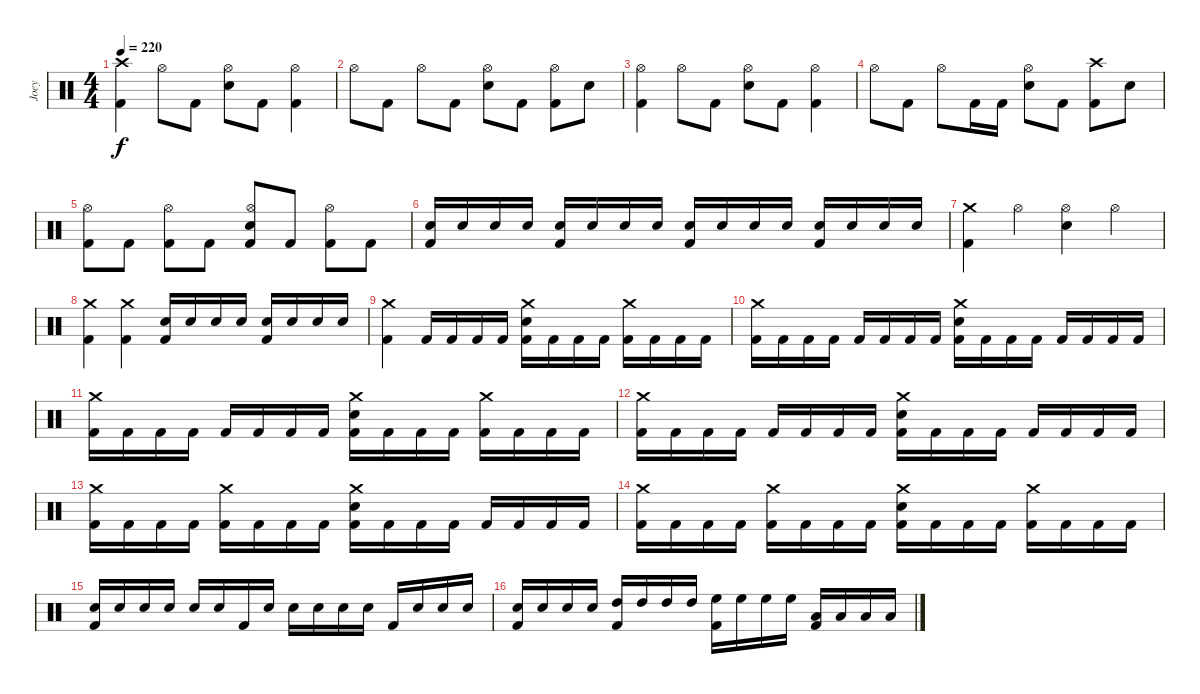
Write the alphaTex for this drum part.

\track ("Joey" "Joey") {instrument percussion}
\staff {score}
\articulation defaults
\ts (4 4)
\tempo 220
\clef neutral
\ks c
("Crash high (hit)" "Kick (hit) 2").4{dy f} "Hi-Hat (open)".8 "Kick (hit) 2".8 ("Hi-Hat (open)" "Electric Snare (hit)").8 "Kick (hit) 2".8 ("Hi-Hat (open)" "Kick (hit) 2").4 |
"Hi-Hat (open)".8 "Kick (hit) 2".8 "Hi-Hat (open)".8 "Kick (hit) 2".8 ("Hi-Hat (open)" "Electric Snare (hit)").8 "Kick (hit) 2".8 ("Hi-Hat (open)" "Kick (hit) 2").8 "Electric Snare (hit)".8 |
("Hi-Hat (open)" "Kick (hit) 2").4 "Hi-Hat (open)".8 "Kick (hit) 2".8 ("Hi-Hat (open)" "Electric Snare (hit)").8 "Kick (hit) 2".8 ("Hi-Hat (open)" "Kick (hit) 2").4 |
"Hi-Hat (open)".8 "Kick (hit) 2".8 "Hi-Hat (open)".8 "Kick (hit) 2".16 "Kick (hit) 2".16 ("Hi-Hat (open)" "Electric Snare (hit)").8 "Kick (hit) 2".8 ("Crash high (hit)" "Kick (hit) 2").8 "Electric Snare (hit)".8 |
("Hi-Hat (open)" "Kick (hit) 2").8 "Kick (hit) 2".8 ("Hi-Hat (open)" "Kick (hit) 2").8 "Kick (hit) 2".8 ("Hi-Hat (open)" "Electric Snare (hit)" "Kick (hit) 2").8 "Kick (hit) 2".8 ("Hi-Hat (open)" "Kick (hit) 2").8 "Kick (hit) 2".8 |
("Electric Snare (hit)" "Kick (hit) 2").16 "Electric Snare (hit)".16 "Electric Snare (hit)".16 "Electric Snare (hit)".16 ("Electric Snare (hit)" "Kick (hit) 2").16 "Electric Snare (hit)".16 "Electric Snare (hit)".16 "Electric Snare (hit)".16 ("Electric Snare (hit)" "Kick (hit) 2").16 "Electric Snare (hit)".16 "Electric Snare (hit)".16 "Electric Snare (hit)".16 ("Electric Snare (hit)" "Kick (hit) 2").16 "Electric Snare (hit)".16 "Electric Snare (hit)".16 "Electric Snare (hit)".16 |
("Crash medium (hit)" "Kick (hit) 2").4 "Hi-Hat (open)".4 ("Hi-Hat (open)" "Electric Snare (hit)").4 "Hi-Hat (open)".4 |
("Crash medium (hit)" "Kick (hit) 2").4 ("Crash medium (hit)" "Kick (hit) 2").4 ("Electric Snare (hit)" "Kick (hit) 2").16 "Electric Snare (hit)".16 "Electric Snare (hit)".16 "Electric Snare (hit)".16 ("Electric Snare (hit)" "Kick (hit) 2").16 "Electric Snare (hit)".16 "Electric Snare (hit)".16 "Electric Snare (hit)".16 |
("Crash medium (hit)" "Kick (hit) 2").4 "Kick (hit) 2".16 "Kick (hit) 2".16 "Kick (hit) 2".16 "Kick (hit) 2".16 ("Crash medium (hit)" "Electric Snare (hit)" "Kick (hit) 2").16 "Kick (hit) 2".16 "Kick (hit) 2".16 "Kick (hit) 2".16 ("Crash medium (hit)" "Kick (hit) 2").16 "Kick (hit) 2".16 "Kick (hit) 2".16 "Kick (hit) 2".16 |
("Crash medium (hit)" "Kick (hit) 2").16 "Kick (hit) 2".16 "Kick (hit) 2".16 "Kick (hit) 2".16 "Kick (hit) 2".16 "Kick (hit) 2".16 "Kick (hit) 2".16 "Kick (hit) 2".16 ("Crash medium (hit)" "Electric Snare (hit)" "Kick (hit) 2").16 "Kick (hit) 2".16 "Kick (hit) 2".16 "Kick (hit) 2".16 "Kick (hit) 2".16 "Kick (hit) 2".16 "Kick (hit) 2".16 "Kick (hit) 2".16 |
("Crash medium (hit)" "Kick (hit) 2").16 "Kick (hit) 2".16 "Kick (hit) 2".16 "Kick (hit) 2".16 "Kick (hit) 2".16 "Kick (hit) 2".16 "Kick (hit) 2".16 "Kick (hit) 2".16 ("Crash medium (hit)" "Electric Snare (hit)" "Kick (hit) 2").16 "Kick (hit) 2".16 "Kick (hit) 2".16 "Kick (hit) 2".16 ("Crash medium (hit)" "Kick (hit) 2").16 "Kick (hit) 2".16 "Kick (hit) 2".16 "Kick (hit) 2".16 |
("Crash medium (hit)" "Kick (hit) 2").16 "Kick (hit) 2".16 "Kick (hit) 2".16 "Kick (hit) 2".16 "Kick (hit) 2".16 "Kick (hit) 2".16 "Kick (hit) 2".16 "Kick (hit) 2".16 ("Crash medium (hit)" "Electric Snare (hit)" "Kick (hit) 2").16 "Kick (hit) 2".16 "Kick (hit) 2".16 "Kick (hit) 2".16 "Kick (hit) 2".16 "Kick (hit) 2".16 "Kick (hit) 2".16 "Kick (hit) 2".16 |
("Crash medium (hit)" "Kick (hit) 2").16 "Kick (hit) 2".16 "Kick (hit) 2".16 "Kick (hit) 2".16 ("Crash medium (hit)" "Kick (hit) 2").16 "Kick (hit) 2".16 "Kick (hit) 2".16 "Kick (hit) 2".16 ("Crash medium (hit)" "Electric Snare (hit)" "Kick (hit) 2").16 "Kick (hit) 2".16 "Kick (hit) 2".16 "Kick (hit) 2".16 "Kick (hit) 2".16 "Kick (hit) 2".16 "Kick (hit) 2".16 "Kick (hit) 2".16 |
("Crash medium (hit)" "Kick (hit) 2").16 "Kick (hit) 2".16 "Kick (hit) 2".16 "Kick (hit) 2".16 ("Crash medium (hit)" "Kick (hit) 2").16 "Kick (hit) 2".16 "Kick (hit) 2".16 "Kick (hit) 2".16 ("Crash medium (hit)" "Electric Snare (hit)" "Kick (hit) 2").16 "Kick (hit) 2".16 "Kick (hit) 2".16 "Kick (hit) 2".16 ("Crash medium (hit)" "Kick (hit) 2").16 "Kick (hit) 2".16 "Kick (hit) 2".16 "Kick (hit) 2".16 |
("Electric Snare (hit)" "Kick (hit) 2").16 "Electric Snare (hit)".16 "Electric Snare (hit)".16 "Electric Snare (hit)".16 "Electric Snare (hit)".16 "Electric Snare (hit)".16 "Kick (hit) 2".16 "Electric Snare (hit)".16 "Electric Snare (hit)".16 "Electric Snare (hit)".16 "Electric Snare (hit)".16 "Electric Snare (hit)".16 "Kick (hit) 2".16 "Electric Snare (hit)".16 "Electric Snare (hit)".16 "Electric Snare (hit)".16 |
("Electric Snare (hit)" "Kick (hit) 2").16 "Electric Snare (hit)".16 "Electric Snare (hit)".16 "Electric Snare (hit)".16 ("High Tom (hit)" "Kick (hit) 2").16 "High Tom (hit)".16 "High Tom (hit)".16 "High Tom (hit)".16 ("High Floor Tom (hit)" "Kick (hit) 2").16 "High Floor Tom (hit)".16 "High Floor Tom (hit)".16 "High Floor Tom (hit)".16 ("Low Floor Tom (hit)" "Kick (hit) 2").16 "Low Floor Tom (hit)".16 "Low Floor Tom (hit)".16 "Low Floor Tom (hit)".16
